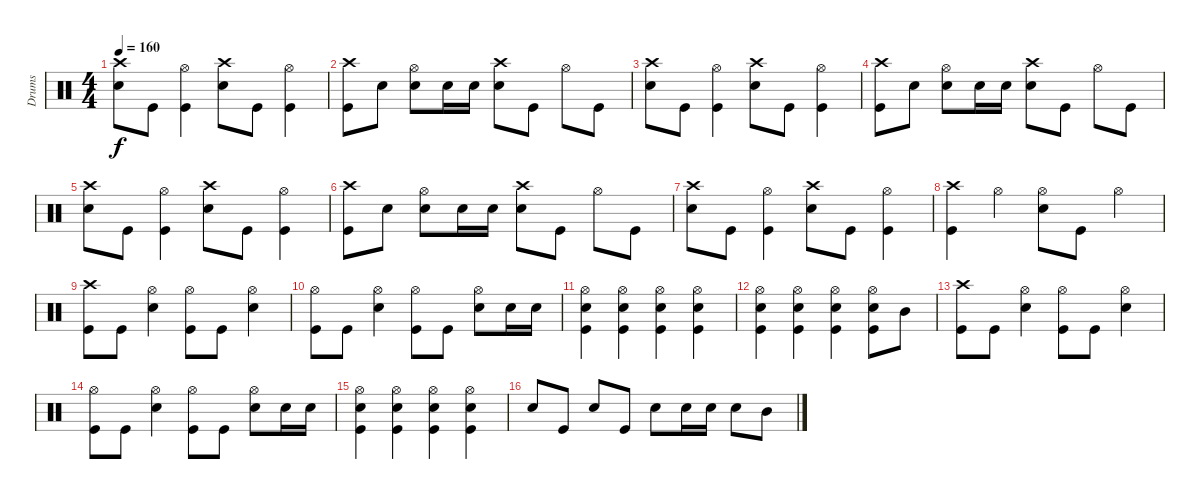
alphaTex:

\track ("Drums" "Drums") {instrument percussion}
\staff {score}
\articulation defaults
\ts (4 4)
\tempo 160
\clef neutral
\ks c
("Crash high (hit)" "Snare (hit) 2").8{dy f} "Kick (hit)".8 ("Hi-Hat (open)" "Kick (hit)").4 ("Crash high (hit)" "Snare (hit) 2").8 "Kick (hit)".8 ("Hi-Hat (open)" "Kick (hit)").4 |
("Crash high (hit)" "Kick (hit)").8 "Snare (hit) 2".8 ("Hi-Hat (open)" "Snare (hit) 2").8 "Snare (hit) 2".16 "Snare (hit) 2".16 ("Crash high (hit)" "Snare (hit) 2").8 "Kick (hit)".8 "Hi-Hat (open)".8 "Kick (hit)".8 |
("Crash high (hit)" "Snare (hit) 2").8 "Kick (hit)".8 ("Hi-Hat (open)" "Kick (hit)").4 ("Crash high (hit)" "Snare (hit) 2").8 "Kick (hit)".8 ("Hi-Hat (open)" "Kick (hit)").4 |
("Crash high (hit)" "Kick (hit)").8 "Snare (hit) 2".8 ("Hi-Hat (open)" "Snare (hit) 2").8 "Snare (hit) 2".16 "Snare (hit) 2".16 ("Crash high (hit)" "Snare (hit) 2").8 "Kick (hit)".8 "Hi-Hat (open)".8 "Kick (hit)".8 |
("Crash high (hit)" "Snare (hit) 2").8 "Kick (hit)".8 ("Hi-Hat (open)" "Kick (hit)").4 ("Crash high (hit)" "Snare (hit) 2").8 "Kick (hit)".8 ("Hi-Hat (open)" "Kick (hit)").4 |
("Crash high (hit)" "Kick (hit)").8 "Snare (hit) 2".8 ("Hi-Hat (open)" "Snare (hit) 2").8 "Snare (hit) 2".16 "Snare (hit) 2".16 ("Crash high (hit)" "Snare (hit) 2").8 "Kick (hit)".8 "Hi-Hat (open)".8 "Kick (hit)".8 |
("Crash high (hit)" "Snare (hit) 2").8 "Kick (hit)".8 ("Hi-Hat (open)" "Kick (hit)").4 ("Crash high (hit)" "Snare (hit) 2").8 "Kick (hit)".8 ("Hi-Hat (open)" "Kick (hit)").4 |
("Crash high (hit)" "Kick (hit)").4 "Hi-Hat (open)".4 ("Hi-Hat (open)" "Snare (hit) 2").8 "Kick (hit)".8 "Hi-Hat (open)".4 |
("Crash high (hit)" "Kick (hit)").8 "Kick (hit)".8 ("Hi-Hat (open)" "Snare (hit) 2").4 ("Hi-Hat (open)" "Kick (hit)").8 "Kick (hit)".8 ("Hi-Hat (open)" "Snare (hit) 2").4 |
("Hi-Hat (open)" "Kick (hit)").8 "Kick (hit)".8 ("Hi-Hat (open)" "Snare (hit) 2").4 ("Hi-Hat (open)" "Kick (hit)").8 "Kick (hit)".8 ("Hi-Hat (open)" "Snare (hit) 2").8 "Snare (hit) 2".16 "Snare (hit) 2".16 |
("Hi-Hat (open)" "Snare (hit) 2" "Kick (hit)").4 ("Hi-Hat (open)" "Snare (hit) 2" "Kick (hit)").4 ("Hi-Hat (open)" "Snare (hit) 2" "Kick (hit)").4 ("Hi-Hat (open)" "Snare (hit) 2" "Kick (hit)").4 |
("Hi-Hat (open)" "Snare (hit) 2" "Kick (hit)").4 ("Hi-Hat (open)" "Snare (hit) 2" "Kick (hit)").4 ("Hi-Hat (open)" "Snare (hit) 2" "Kick (hit)").4 ("Hi-Hat (open)" "Snare (hit) 2" "Kick (hit)").8 "Mid Tom (hit)".8 |
("Crash high (hit)" "Kick (hit)").8 "Kick (hit)".8 ("Hi-Hat (open)" "Snare (hit) 2").4 ("Hi-Hat (open)" "Kick (hit)").8 "Kick (hit)".8 ("Hi-Hat (open)" "Snare (hit) 2").4 |
("Hi-Hat (open)" "Kick (hit)").8 "Kick (hit)".8 ("Hi-Hat (open)" "Snare (hit) 2").4 ("Hi-Hat (open)" "Kick (hit)").8 "Kick (hit)".8 ("Hi-Hat (open)" "Snare (hit) 2").8 "Snare (hit) 2".16 "Snare (hit) 2".16 |
("Hi-Hat (open)" "Snare (hit) 2" "Kick (hit)").4 ("Hi-Hat (open)" "Snare (hit) 2" "Kick (hit)").4 ("Hi-Hat (open)" "Snare (hit) 2" "Kick (hit)").4 ("Hi-Hat (open)" "Snare (hit) 2" "Kick (hit)").4 |
"Snare (hit) 2".8 "Kick (hit)".8 "Snare (hit) 2".8 "Kick (hit)".8 "Snare (hit) 2".8 "Snare (hit) 2".16 "Snare (hit) 2".16 "Snare (hit) 2".8 "Mid Tom (hit)".8
